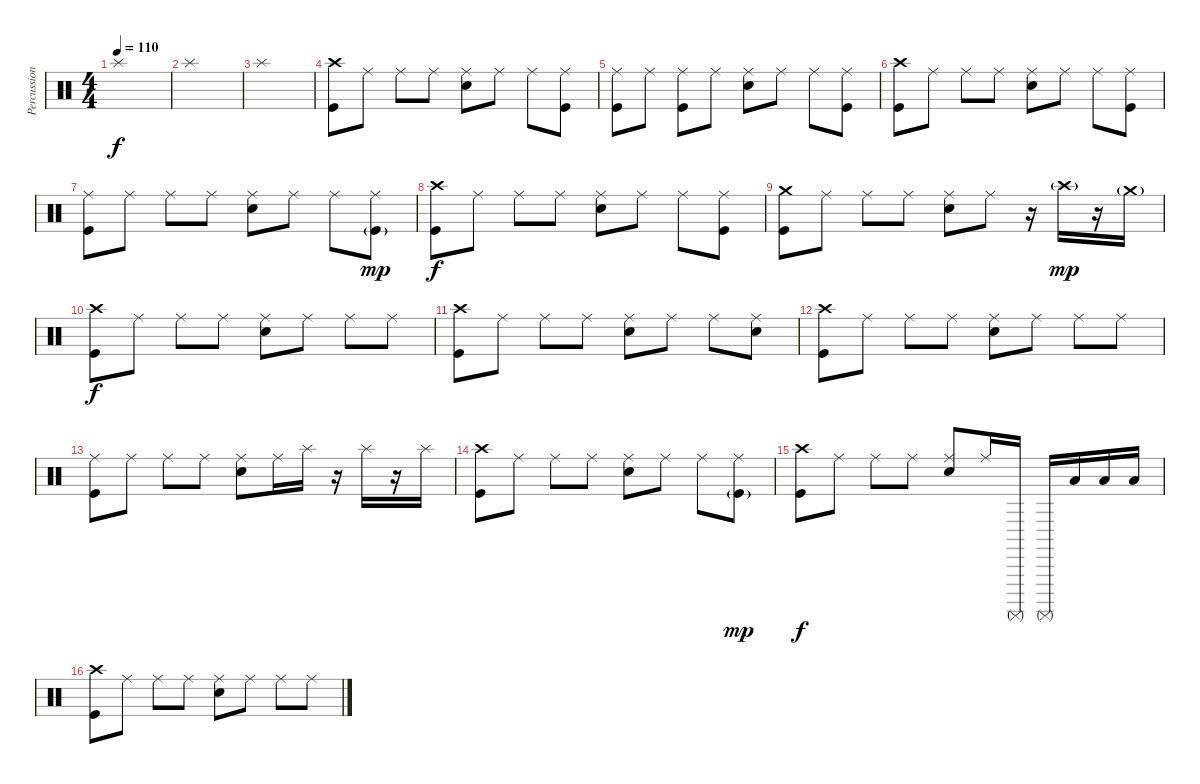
\track ("Percussions" "Percussion") {instrument percussion}
\staff {score}
\articulation defaults
\ts (4 4)
\tempo 110
\clef neutral
\ks c "Splash (hit)".1{dy f}
|
"Splash (hit)".1 |
"Splash (hit)".1 |
("Crash high (hit)" "Kick (hit)").8 "Ride (middle)".8 "Ride (middle)".8 "Ride (middle)".8 ("Ride (middle)" "Snare (hit) 2").8 "Ride (middle)".8 "Ride (middle)".8 ("Ride (middle)" "Kick (hit)").8 |
("Ride (middle)" "Kick (hit)").8 "Ride (middle)".8 ("Ride (middle)" "Kick (hit)").8 "Ride (middle)".8 ("Ride (middle)" "Snare (hit) 2").8 "Ride (middle)".8 "Ride (middle)".8 ("Ride (middle)" "Kick (hit)").8 |
("Crash high (hit)" "Kick (hit)").8 "Ride (middle)".8 "Ride (middle)".8 "Ride (middle)".8 ("Ride (middle)" "Snare (hit) 2").8 "Ride (middle)".8 "Ride (middle)".8 ("Ride (middle)" "Kick (hit)").8 |
("Ride (middle)" "Kick (hit)").8 "Ride (middle)".8 "Ride (middle)".8 "Ride (middle)".8 ("Ride (middle)" "Snare (hit) 2").8 "Ride (middle)".8 "Ride (middle)".8 ("Ride (middle)" "Kick (hit)"{g}).8{dy mp} |
("Crash high (hit)" "Kick (hit)").8{dy f} "Ride (middle)".8 "Ride (middle)".8 "Ride (middle)".8 ("Ride (middle)" "Snare (hit) 2").8 "Ride (middle)".8 "Ride (middle)".8 ("Ride (middle)" "Kick (hit)").8 |
("Crash medium (hit)" "Kick (hit)").8 "Ride (middle)".8 "Ride (middle)".8 "Ride (middle)".8 ("Ride (middle)" "Snare (hit) 2").8 "Ride (middle)".8 r.16 "Crash high (hit)"{g}.16{dy mp} r.16 "Crash medium (hit)"{g}.16 |
("Crash high (hit)" "Kick (hit)").8{dy f} "Ride (middle)".8 "Ride (middle)".8 "Ride (middle)".8 ("Ride (middle)" "Snare (hit) 2").8 "Ride (middle)".8 "Ride (middle)".8 "Ride (middle)".8 |
("Crash high (hit)" "Kick (hit)").8 "Ride (middle)".8 "Ride (middle)".8 "Ride (middle)".8 ("Ride (middle)" "Snare (hit) 2").8 "Ride (middle)".8 "Ride (middle)".8 ("Ride (middle)" "Snare (hit) 2").8 |
("Crash high (hit)" "Kick (hit)").8 "Ride (middle)".8 "Ride (middle)".8 "Ride (middle)".8 ("Ride (middle)" "Snare (hit) 2").8 "Ride (middle)".8 "Ride (middle)".8 "Ride (middle)".8 |
("Ride (middle)" "Kick (hit)").8 "Ride (middle)".8 "Ride (middle)".8 "Ride (middle)".8 ("Ride (middle)" "Snare (hit) 2").8 "Ride (middle)".16 "Splash (hit)".16 r.16 "Splash (hit)".16 r.16 "Splash (hit)".16 |
("Crash high (hit)" "Kick (hit)").8 "Ride (middle)".8 "Ride (middle)".8 "Ride (middle)".8 ("Ride (middle)" "Snare (hit) 2").8 "Ride (middle)".8 "Ride (middle)".8 ("Ride (middle)" "Kick (hit)"{g}).8{dy mp} |
("Crash high (hit)" "Kick (hit)").8{dy f} "Ride (middle)".8 "Ride (middle)".8 "Ride (middle)".8 ("Ride (middle)" "Snare (hit) 2").8 "Ride (middle)".16 "Surdo (mute)".16 "Surdo (mute)".16 "Low Floor Tom (hit)".16 "Low Floor Tom (hit)".16 "Low Floor Tom (hit)".16 |
("Crash high (hit)" "Kick (hit)").8 "Ride (middle)".8 "Ride (middle)".8 "Ride (middle)".8 ("Ride (middle)" "Snare (hit) 2").8 "Ride (middle)".8 "Ride (middle)".8 "Ride (middle)".8
